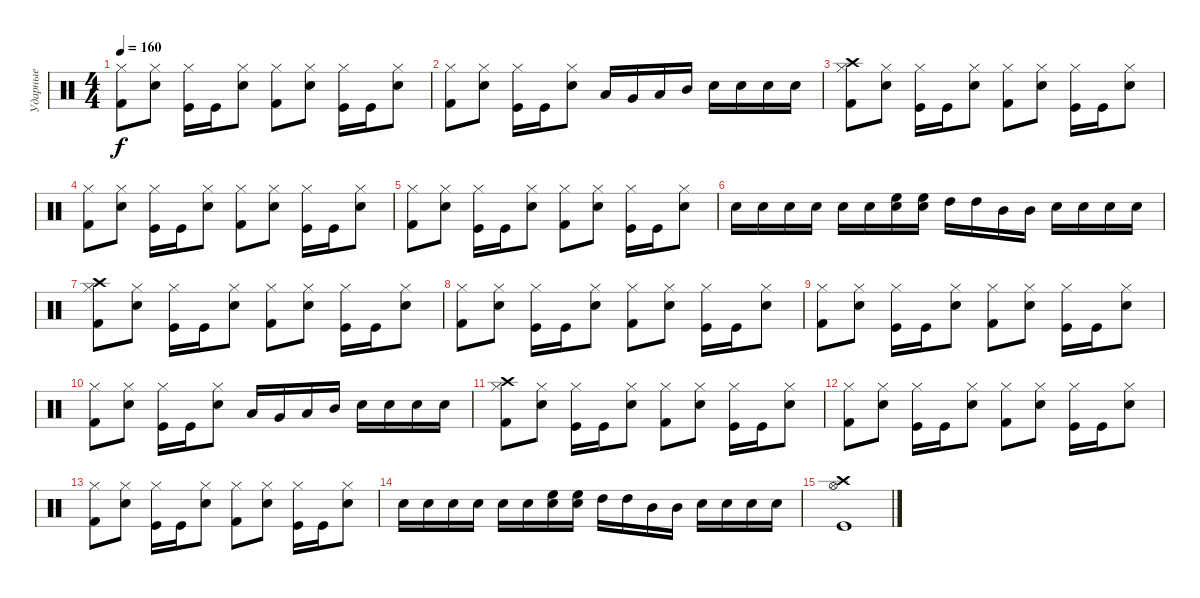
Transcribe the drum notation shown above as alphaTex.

\track ("Ударные" "Ударные") {instrument percussion}
\staff {score}
\articulation defaults
\ts (4 4)
\tempo 160
\clef neutral
\ks c
("Hi-Hat (closed)" "Kick (hit) 2").8{dy f} ("Hi-Hat (closed)" "Snare (hit) 2").8 ("Hi-Hat (closed)" "Kick (hit)").16 "Kick (hit)".16 ("Hi-Hat (closed)" "Snare (hit) 2").8 ("Hi-Hat (closed)" "Kick (hit) 2").8 ("Hi-Hat (closed)" "Snare (hit) 2").8 ("Hi-Hat (closed)" "Kick (hit)").16 "Kick (hit)".16 ("Hi-Hat (closed)" "Snare (hit) 2").8 |
("Hi-Hat (closed)" "Kick (hit) 2").8 ("Hi-Hat (closed)" "Snare (hit) 2").8 ("Hi-Hat (closed)" "Kick (hit)").16 "Kick (hit)".16 ("Hi-Hat (closed)" "Snare (hit) 2").8 "Low Floor Tom (hit)".16 "Very Low Tom (hit)".16 "Low Tom (hit)".16 "Mid Tom (hit)".16 "Snare (hit) 2".16 "Snare (hit) 2".16 "Snare (hit) 2".16 "Snare (hit) 2".16 |
("Crash high (hit)" "Hi-Hat (closed)" "Kick (hit) 2").8 ("Hi-Hat (closed)" "Snare (hit) 2").8 ("Hi-Hat (closed)" "Kick (hit)").16 "Kick (hit)".16 ("Hi-Hat (closed)" "Snare (hit) 2").8 ("Hi-Hat (closed)" "Kick (hit) 2").8 ("Hi-Hat (closed)" "Snare (hit) 2").8 ("Hi-Hat (closed)" "Kick (hit)").16 "Kick (hit)".16 ("Hi-Hat (closed)" "Snare (hit) 2").8 |
("Hi-Hat (closed)" "Kick (hit) 2").8 ("Hi-Hat (closed)" "Snare (hit) 2").8 ("Hi-Hat (closed)" "Kick (hit)").16 "Kick (hit)".16 ("Hi-Hat (closed)" "Snare (hit) 2").8 ("Hi-Hat (closed)" "Kick (hit) 2").8 ("Hi-Hat (closed)" "Snare (hit) 2").8 ("Hi-Hat (closed)" "Kick (hit)").16 "Kick (hit)".16 ("Hi-Hat (closed)" "Snare (hit) 2").8 |
("Hi-Hat (closed)" "Kick (hit) 2").8 ("Hi-Hat (closed)" "Snare (hit) 2").8 ("Hi-Hat (closed)" "Kick (hit)").16 "Kick (hit)".16 ("Hi-Hat (closed)" "Snare (hit) 2").8 ("Hi-Hat (closed)" "Kick (hit) 2").8 ("Hi-Hat (closed)" "Snare (hit) 2").8 ("Hi-Hat (closed)" "Kick (hit)").16 "Kick (hit)".16 ("Hi-Hat (closed)" "Snare (hit) 2").8 |
"Snare (hit) 2".16 "Snare (hit) 2".16 "Snare (hit) 2".16 "Snare (hit) 2".16 "Snare (hit) 2".16 "Snare (hit) 2".16 ("High Floor Tom (hit)" "Snare (hit) 2").16 ("High Floor Tom (hit)" "Snare (hit) 2").16 "High Tom (hit)".16 "High Tom (hit)".16 "Mid Tom (hit)".16 "Mid Tom (hit)".16 "Snare (hit) 2".16 "Snare (hit) 2".16 "Snare (hit) 2".16 "Snare (hit) 2".16 |
("Crash high (hit)" "Hi-Hat (closed)" "Kick (hit) 2").8 ("Hi-Hat (closed)" "Snare (hit) 2").8 ("Hi-Hat (closed)" "Kick (hit)").16 "Kick (hit)".16 ("Hi-Hat (closed)" "Snare (hit) 2").8 ("Hi-Hat (closed)" "Kick (hit) 2").8 ("Hi-Hat (closed)" "Snare (hit) 2").8 ("Hi-Hat (closed)" "Kick (hit)").16 "Kick (hit)".16 ("Hi-Hat (closed)" "Snare (hit) 2").8 |
("Hi-Hat (closed)" "Kick (hit) 2").8 ("Hi-Hat (closed)" "Snare (hit) 2").8 ("Hi-Hat (closed)" "Kick (hit)").16 "Kick (hit)".16 ("Hi-Hat (closed)" "Snare (hit) 2").8 ("Hi-Hat (closed)" "Kick (hit) 2").8 ("Hi-Hat (closed)" "Snare (hit) 2").8 ("Hi-Hat (closed)" "Kick (hit)").16 "Kick (hit)".16 ("Hi-Hat (closed)" "Snare (hit) 2").8 |
("Hi-Hat (closed)" "Kick (hit) 2").8 ("Hi-Hat (closed)" "Snare (hit) 2").8 ("Hi-Hat (closed)" "Kick (hit)").16 "Kick (hit)".16 ("Hi-Hat (closed)" "Snare (hit) 2").8 ("Hi-Hat (closed)" "Kick (hit) 2").8 ("Hi-Hat (closed)" "Snare (hit) 2").8 ("Hi-Hat (closed)" "Kick (hit)").16 "Kick (hit)".16 ("Hi-Hat (closed)" "Snare (hit) 2").8 |
("Hi-Hat (closed)" "Kick (hit) 2").8 ("Hi-Hat (closed)" "Snare (hit) 2").8 ("Hi-Hat (closed)" "Kick (hit)").16 "Kick (hit)".16 ("Hi-Hat (closed)" "Snare (hit) 2").8 "Low Floor Tom (hit)".16 "Very Low Tom (hit)".16 "Low Tom (hit)".16 "Mid Tom (hit)".16 "Snare (hit) 2".16 "Snare (hit) 2".16 "Snare (hit) 2".16 "Snare (hit) 2".16 |
("Crash high (hit)" "Hi-Hat (closed)" "Kick (hit) 2").8 ("Hi-Hat (closed)" "Snare (hit) 2").8 ("Hi-Hat (closed)" "Kick (hit)").16 "Kick (hit)".16 ("Hi-Hat (closed)" "Snare (hit) 2").8 ("Hi-Hat (closed)" "Kick (hit) 2").8 ("Hi-Hat (closed)" "Snare (hit) 2").8 ("Hi-Hat (closed)" "Kick (hit)").16 "Kick (hit)".16 ("Hi-Hat (closed)" "Snare (hit) 2").8 |
("Hi-Hat (closed)" "Kick (hit) 2").8 ("Hi-Hat (closed)" "Snare (hit) 2").8 ("Hi-Hat (closed)" "Kick (hit)").16 "Kick (hit)".16 ("Hi-Hat (closed)" "Snare (hit) 2").8 ("Hi-Hat (closed)" "Kick (hit) 2").8 ("Hi-Hat (closed)" "Snare (hit) 2").8 ("Hi-Hat (closed)" "Kick (hit)").16 "Kick (hit)".16 ("Hi-Hat (closed)" "Snare (hit) 2").8 |
("Hi-Hat (closed)" "Kick (hit) 2").8 ("Hi-Hat (closed)" "Snare (hit) 2").8 ("Hi-Hat (closed)" "Kick (hit)").16 "Kick (hit)".16 ("Hi-Hat (closed)" "Snare (hit) 2").8 ("Hi-Hat (closed)" "Kick (hit) 2").8 ("Hi-Hat (closed)" "Snare (hit) 2").8 ("Hi-Hat (closed)" "Kick (hit)").16 "Kick (hit)".16 ("Hi-Hat (closed)" "Snare (hit) 2").8 |
"Snare (hit) 2".16 "Snare (hit) 2".16 "Snare (hit) 2".16 "Snare (hit) 2".16 "Snare (hit) 2".16 "Snare (hit) 2".16 ("High Floor Tom (hit)" "Snare (hit) 2").16 ("High Floor Tom (hit)" "Snare (hit) 2").16 "High Tom (hit)".16 "High Tom (hit)".16 "Mid Tom (hit)".16 "Mid Tom (hit)".16 "Snare (hit) 2".16 "Snare (hit) 2".16 "Snare (hit) 2".16 "Snare (hit) 2".16 |
("Hi-Hat (open)" "Crash high (hit)" "Kick (hit)").1
